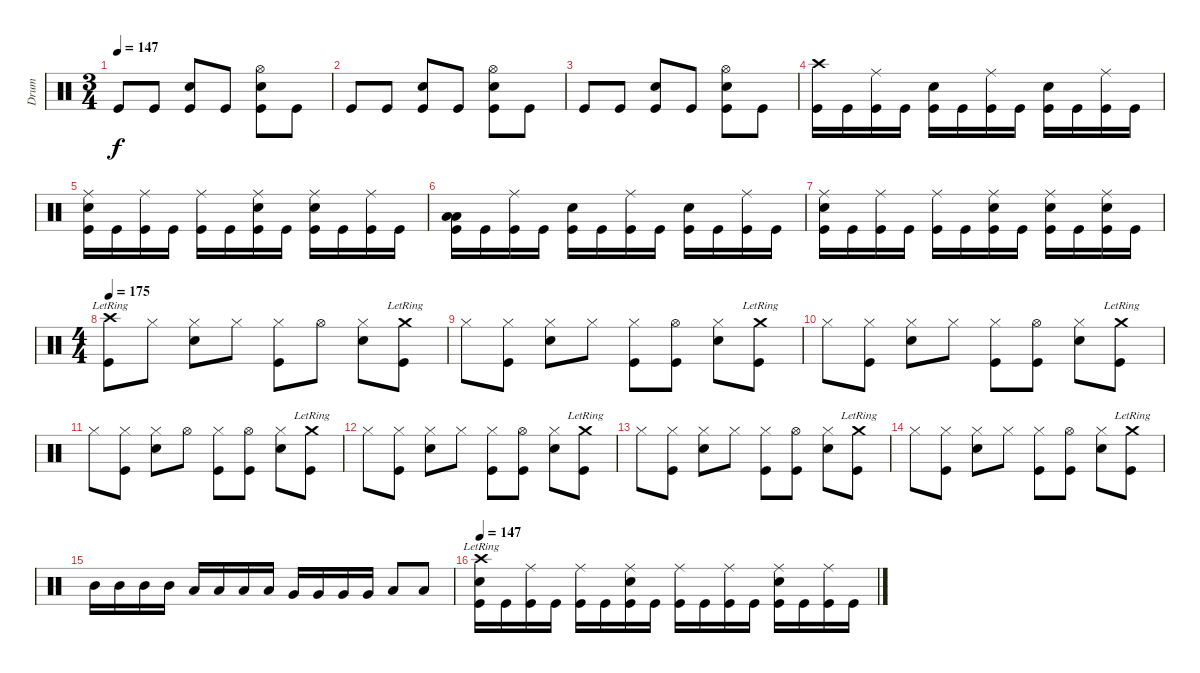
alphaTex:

\track ("Drum" "Drum") {instrument percussion}
\staff {score}
\articulation defaults
\ts (3 4)
\tempo 147
\clef neutral
\ks c "Kick (hit)".8{dy f} "Kick (hit)".8
("Snare (hit) 2" "Kick (hit)").8 "Kick (hit)".8 ("Hi-Hat (open)" "Snare (hit) 2" "Kick (hit)").8 "Kick (hit)".8 |
"Kick (hit)".8 "Kick (hit)".8 ("Snare (hit) 2" "Kick (hit)").8 "Kick (hit)".8 ("Hi-Hat (open)" "Snare (hit) 2" "Kick (hit)").8 "Kick (hit)".8 |
"Kick (hit)".8 "Kick (hit)".8 ("Snare (hit) 2" "Kick (hit)").8 "Kick (hit)".8 ("Hi-Hat (open)" "Snare (hit) 2" "Kick (hit)").8 "Kick (hit)".8 |
("Crash high (hit)" "Kick (hit)").16 "Kick (hit)".16 ("Ride (middle)" "Kick (hit)").16 "Kick (hit)".16 ("Snare (hit) 2" "Kick (hit)").16 "Kick (hit)".16 ("Ride (middle)" "Kick (hit)").16 "Kick (hit)".16 ("Snare (hit) 2" "Kick (hit)").16 "Kick (hit)".16 ("Ride (middle)" "Kick (hit)").16 "Kick (hit)".16 |
("Ride (middle)" "Snare (hit) 2" "Kick (hit)").16 "Kick (hit)".16 ("Ride (middle)" "Kick (hit)").16 "Kick (hit)".16 ("Ride (middle)" "Kick (hit)").16 "Kick (hit)".16 ("Ride (middle)" "Snare (hit) 2" "Kick (hit)").16 "Kick (hit)".16 ("Ride (middle)" "Snare (hit) 2" "Kick (hit)").16 "Kick (hit)".16 ("Ride (middle)" "Kick (hit)").16 "Kick (hit)".16 |
("Low Floor Tom (hit)" "Low Floor Tom (hit)" "Kick (hit)").16 "Kick (hit)".16 ("Ride (middle)" "Kick (hit)").16 "Kick (hit)".16 ("Snare (hit) 2" "Kick (hit)").16 "Kick (hit)".16 ("Ride (middle)" "Kick (hit)").16 "Kick (hit)".16 ("Snare (hit) 2" "Kick (hit)").16 "Kick (hit)".16 ("Ride (middle)" "Kick (hit)").16 "Kick (hit)".16 |
("Ride (middle)" "Snare (hit) 2" "Kick (hit)").16 "Kick (hit)".16 ("Ride (middle)" "Kick (hit)").16 "Kick (hit)".16 ("Ride (middle)" "Kick (hit)").16 "Kick (hit)".16 ("Ride (middle)" "Snare (hit) 2" "Kick (hit)").16 "Kick (hit)".16 ("Ride (middle)" "Snare (hit) 2" "Kick (hit)").16 "Kick (hit)".16 ("Ride (middle)" "Snare (hit) 2" "Kick (hit)").16 "Kick (hit)".16 |
\ts (4 4)
\tempo 175
("Crash high (hit)"{lr} "Kick (hit)").8 "Hi-Hat (closed)".8 ("Hi-Hat (closed)" "Snare (hit) 2").8 "Hi-Hat (closed)".8 ("Hi-Hat (closed)" "Kick (hit)").8 "Hi-Hat (open)".8 ("Hi-Hat (closed)" "Snare (hit) 2").8 ("Crash medium (hit)"{lr} "Kick (hit)").8 |
"Hi-Hat (closed)".8 ("Hi-Hat (closed)" "Kick (hit)").8 ("Hi-Hat (closed)" "Snare (hit) 2").8 "Hi-Hat (closed)".8 ("Hi-Hat (closed)" "Kick (hit)").8 ("Hi-Hat (open)" "Kick (hit)").8 ("Hi-Hat (closed)" "Snare (hit) 2").8 ("Crash medium (hit)"{lr} "Kick (hit)").8 |
"Hi-Hat (closed)".8 ("Hi-Hat (closed)" "Kick (hit)").8 ("Hi-Hat (closed)" "Snare (hit) 2").8 "Hi-Hat (closed)".8 ("Hi-Hat (closed)" "Kick (hit)").8 ("Hi-Hat (open)" "Kick (hit)").8 ("Hi-Hat (closed)" "Snare (hit) 2").8 ("Crash medium (hit)"{lr} "Kick (hit)").8 |
"Hi-Hat (closed)".8 ("Hi-Hat (closed)" "Kick (hit)").8 ("Hi-Hat (closed)" "Snare (hit) 2").8 "Hi-Hat (open)".8 ("Hi-Hat (closed)" "Kick (hit)").8 ("Hi-Hat (open)" "Kick (hit)").8 ("Hi-Hat (closed)" "Snare (hit) 2").8 ("Crash medium (hit)"{lr} "Kick (hit)").8 |
"Hi-Hat (closed)".8 ("Hi-Hat (closed)" "Kick (hit)").8 ("Hi-Hat (closed)" "Snare (hit) 2").8 "Hi-Hat (closed)".8 ("Hi-Hat (closed)" "Kick (hit)").8 ("Hi-Hat (open)" "Kick (hit)").8 ("Hi-Hat (closed)" "Snare (hit) 2").8 ("Crash medium (hit)"{lr} "Kick (hit)").8 |
"Hi-Hat (closed)".8 ("Hi-Hat (closed)" "Kick (hit)").8 ("Hi-Hat (closed)" "Snare (hit) 2").8 "Hi-Hat (closed)".8 ("Hi-Hat (closed)" "Kick (hit)").8 ("Hi-Hat (open)" "Kick (hit)").8 ("Hi-Hat (closed)" "Snare (hit) 2").8 ("Crash medium (hit)"{lr} "Kick (hit)").8 |
"Hi-Hat (closed)".8 ("Hi-Hat (closed)" "Kick (hit)").8 ("Hi-Hat (closed)" "Snare (hit) 2").8 "Hi-Hat (closed)".8 ("Hi-Hat (closed)" "Kick (hit)").8 ("Hi-Hat (open)" "Kick (hit)").8 ("Hi-Hat (closed)" "Snare (hit) 2").8 ("Crash medium (hit)"{lr} "Kick (hit)").8 |
"Mid Tom (hit)".16 "Mid Tom (hit)".16 "Mid Tom (hit)".16 "Mid Tom (hit)".16 "Low Tom (hit)".16 "Low Tom (hit)".16 "Low Tom (hit)".16 "Low Tom (hit)".16 "Very Low Tom (hit)".16 "Very Low Tom (hit)".16 "Very Low Tom (hit)".16 "Very Low Tom (hit)".16 "Low Floor Tom (hit)".8 "Low Floor Tom (hit)".8 |
\tempo 147
("Crash high (hit)"{lr} "Snare (hit) 2" "Kick (hit)").16 "Kick (hit)".16 ("Ride (middle)" "Kick (hit)").16 "Kick (hit)".16 ("Ride (middle)" "Kick (hit)").16 "Kick (hit)".16 ("Ride (middle)" "Snare (hit) 2" "Kick (hit)").16 "Kick (hit)".16 ("Ride (middle)" "Kick (hit)").16 "Kick (hit)".16 ("Ride (middle)" "Kick (hit)").16 "Kick (hit)".16 ("Ride (middle)" "Snare (hit) 2" "Kick (hit)").16 "Kick (hit)".16 ("Ride (middle)" "Kick (hit)").16 "Kick (hit)".16
